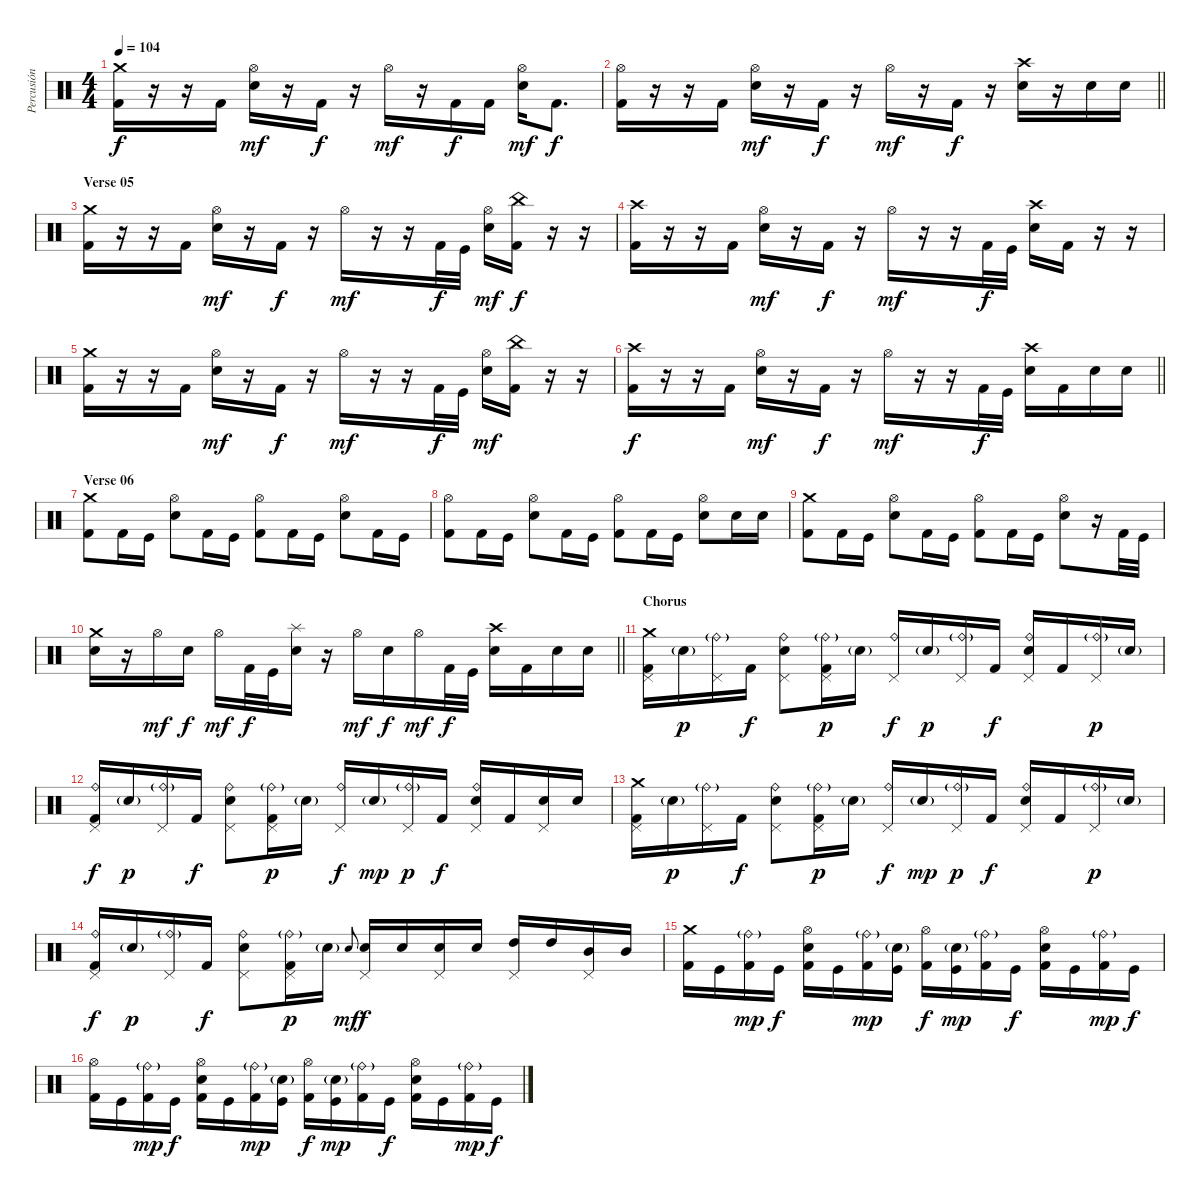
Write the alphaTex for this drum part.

\track ("Percusión" "Percusión") {instrument percussion}
\staff {score}
\articulation defaults
\ts (4 4)
\tempo 104
\clef neutral
\ks c
("Crash medium (hit)" "Kick (hit) 2").16{dy f} r.16 r.16 "Kick (hit) 2".16 ("Hi-Hat (open)" "Snare (hit) 2").16{dy mf} r.16 "Kick (hit) 2".16{dy f} r.16 "Hi-Hat (open)".16{dy mf} r.16 "Kick (hit) 2".16{dy f} "Kick (hit) 2".16 ("Hi-Hat (open)" "Snare (hit) 2").16{dy mf} "Kick (hit) 2".8{d dy f} |
\barLineRight lightlight
("Hi-Hat (open)" "Kick (hit) 2").16 r.16 r.16 "Kick (hit) 2".16 ("Hi-Hat (open)" "Snare (hit) 2").16{dy mf} r.16 "Kick (hit) 2".16{dy f} r.16 "Hi-Hat (open)".16{dy mf} r.16 "Kick (hit) 2".16{dy f} r.16 ("Crash high (hit)" "Snare (hit) 2").16 r.16 "Snare (hit) 2".16 "Snare (hit) 2".16 |
\section ("" "Verse 05")
("Crash medium (hit)" "Kick (hit) 2").16 r.16 r.16 "Kick (hit) 2".16 ("Hi-Hat (open)" "Snare (hit) 2").16{dy mf} r.16 "Kick (hit) 2".16{dy f} r.16 "Hi-Hat (open)".16{dy mf} r.16 r.16 "Kick (hit) 2".32{dy f} "Kick (hit)".32 ("Hi-Hat (open)" "Snare (hit) 2").16{dy mf} ("China (hit)" "Kick (hit) 2").16{dy f} r.16 r.16 |
("Crash high (hit)" "Kick (hit) 2").16 r.16 r.16 "Kick (hit) 2".16 ("Hi-Hat (open)" "Snare (hit) 2").16{dy mf} r.16 "Kick (hit) 2".16{dy f} r.16 "Hi-Hat (open)".16{dy mf} r.16 r.16 "Kick (hit) 2".32{dy f} "Kick (hit)".32 ("Crash high (hit)" "Snare (hit) 2").16 "Kick (hit) 2".16 r.16 r.16 |
("Crash medium (hit)" "Kick (hit) 2").16 r.16 r.16 "Kick (hit) 2".16 ("Hi-Hat (open)" "Snare (hit) 2").16{dy mf} r.16 "Kick (hit) 2".16{dy f} r.16 "Hi-Hat (open)".16{dy mf} r.16 r.16 "Kick (hit) 2".32{dy f} "Kick (hit)".32 ("Hi-Hat (open)" "Snare (hit) 2").16{dy mf} ("China (hit)" "Kick (hit) 2").16 r.16 r.16 |
\barLineRight lightlight
("Crash high (hit)" "Kick (hit) 2").16{dy f} r.16 r.16 "Kick (hit) 2".16 ("Hi-Hat (open)" "Snare (hit) 2").16{dy mf} r.16 "Kick (hit) 2".16{dy f} r.16 "Hi-Hat (open)".16{dy mf} r.16 r.16 "Kick (hit) 2".32{dy f} "Kick (hit)".32 ("Crash high (hit)" "Snare (hit) 2").16 "Kick (hit) 2".16 "Snare (hit) 2".16 "Snare (hit) 2".16 |
\section ("" "Verse 06")
("Crash medium (hit)" "Kick (hit) 2").8 "Kick (hit) 2".16 "Kick (hit)".16 ("Hi-Hat (open)" "Snare (hit) 2").8 "Kick (hit) 2".16 "Kick (hit)".16 ("Hi-Hat (open)" "Kick (hit) 2").8 "Kick (hit) 2".16 "Kick (hit)".16 ("Hi-Hat (open)" "Snare (hit) 2").8 "Kick (hit) 2".16 "Kick (hit)".16 |
("Hi-Hat (open)" "Kick (hit) 2").8 "Kick (hit) 2".16 "Kick (hit)".16 ("Hi-Hat (open)" "Snare (hit) 2").8 "Kick (hit) 2".16 "Kick (hit)".16 ("Hi-Hat (open)" "Kick (hit) 2").8 "Kick (hit) 2".16 "Kick (hit)".16 ("Hi-Hat (open)" "Snare (hit) 2").8 "Snare (hit) 2".16 "Snare (hit) 2".16 |
("Crash medium (hit)" "Kick (hit) 2").8 "Kick (hit) 2".16 "Kick (hit)".16 ("Hi-Hat (open)" "Snare (hit) 2").8 "Kick (hit) 2".16 "Kick (hit)".16 ("Hi-Hat (open)" "Kick (hit) 2").8 "Kick (hit) 2".16 "Kick (hit)".16 ("Hi-Hat (open)" "Snare (hit) 2").8 r.16 "Kick (hit) 2".32 "Kick (hit)".32 |
\barLineRight lightlight
("Crash medium (hit)" "Snare (hit) 2").16 r.16 "Hi-Hat (open)".16{dy mf} "Snare (hit) 2".16{dy f} "Hi-Hat (open)".16{dy mf} "Kick (hit) 2".32{dy f} "Kick (hit)".32 ("Splash (hit)" "Snare (hit) 2").16 r.16 "Hi-Hat (open)".16{dy mf} "Snare (hit) 2".16{dy f} "Hi-Hat (open)".16{dy mf} "Kick (hit) 2".32{dy f} "Kick (hit)".32 ("Crash high (hit)" "Snare (hit) 2").16 "Kick (hit) 2".16 "Snare (hit) 2".16 "Snare (hit) 2".16 |
\section ("" "Chorus")
("Crash medium (hit)" "Pedal Hi-Hat (hit)" "Kick (hit) 2").16 "Snare (hit) 2"{g}.16{dy p} ("Ride (bell)"{g} "Pedal Hi-Hat (hit)").16 "Kick (hit) 2".16{dy f} ("Ride (bell)" "Pedal Hi-Hat (hit)" "Snare (hit) 2").8 ("Ride (bell)"{g} "Pedal Hi-Hat (hit)" "Kick (hit) 2").16{dy p} "Snare (hit) 2"{g}.16 ("Ride (bell)" "Pedal Hi-Hat (hit)").16{dy f} "Snare (hit) 2"{g}.16{dy p} ("Ride (bell)"{g} "Pedal Hi-Hat (hit)").16 "Kick (hit) 2".16{dy f} ("Ride (bell)" "Pedal Hi-Hat (hit)" "Snare (hit) 2").16 "Kick (hit) 2".16 ("Ride (bell)"{g} "Pedal Hi-Hat (hit)").16{dy p} "Snare (hit) 2"{g}.16 |
("Ride (bell)" "Pedal Hi-Hat (hit)" "Kick (hit) 2").16{dy f} "Snare (hit) 2"{g}.16{dy p} ("Ride (bell)"{g} "Pedal Hi-Hat (hit)").16 "Kick (hit) 2".16{dy f} ("Ride (bell)" "Pedal Hi-Hat (hit)" "Snare (hit) 2").8 ("Ride (bell)"{g} "Pedal Hi-Hat (hit)" "Kick (hit) 2").16{dy p} "Snare (hit) 2"{g}.16 ("Ride (bell)" "Pedal Hi-Hat (hit)").16{dy f} "Snare (hit) 2"{g}.16{dy mp} ("Ride (bell)"{g} "Pedal Hi-Hat (hit)").16{dy p} "Kick (hit) 2".16{dy f} ("Ride (bell)" "Pedal Hi-Hat (hit)" "Snare (hit) 2").16 "Kick (hit) 2".16 ("Pedal Hi-Hat (hit)" "Snare (hit) 2").16 "Snare (hit) 2".16 |
("Crash medium (hit)" "Pedal Hi-Hat (hit)" "Kick (hit) 2").16 "Snare (hit) 2"{g}.16{dy p} ("Ride (bell)"{g} "Pedal Hi-Hat (hit)").16 "Kick (hit) 2".16{dy f} ("Ride (bell)" "Pedal Hi-Hat (hit)" "Snare (hit) 2").8 ("Ride (bell)"{g} "Pedal Hi-Hat (hit)" "Kick (hit) 2").16{dy p} "Snare (hit) 2"{g}.16 ("Ride (bell)" "Pedal Hi-Hat (hit)").16{dy f} "Snare (hit) 2"{g}.16{dy mp} ("Ride (bell)"{g} "Pedal Hi-Hat (hit)").16{dy p} "Kick (hit) 2".16{dy f} ("Ride (bell)" "Pedal Hi-Hat (hit)" "Snare (hit) 2").16 "Kick (hit) 2".16 ("Ride (bell)"{g} "Pedal Hi-Hat (hit)").16{dy p} "Snare (hit) 2"{g}.16 |
("Ride (bell)" "Pedal Hi-Hat (hit)" "Kick (hit) 2").16{dy f} "Snare (hit) 2"{g}.16{dy p} ("Ride (bell)"{g} "Pedal Hi-Hat (hit)").16 "Kick (hit) 2".16{dy f} ("Ride (bell)" "Pedal Hi-Hat (hit)" "Snare (hit) 2").8 ("Ride (bell)"{g} "Pedal Hi-Hat (hit)" "Kick (hit) 2").16{dy p} "Snare (hit) 2"{g}.16 "Snare (hit) 2".8{gr onbeat dy mf} ("Pedal Hi-Hat (hit)" "Snare (hit) 2").16{dy f} "Snare (hit) 2".16 ("Pedal Hi-Hat (hit)" "Snare (hit) 2").16 "Snare (hit) 2".16 ("Pedal Hi-Hat (hit)" "High Tom (hit)").16 "High Tom (hit)".16 ("Pedal Hi-Hat (hit)" "Mid Tom (hit)").16 "Mid Tom (hit)".16 |
("Crash medium (hit)" "Kick (hit) 2").16 "Kick (hit)".16 ("Ride (bell)"{g} "Kick (hit) 2").16{dy mp} "Kick (hit)".16{dy f} ("Hi-Hat (open)" "Snare (hit) 2" "Kick (hit) 2").16 "Kick (hit)".16 ("Ride (bell)"{g} "Kick (hit) 2").16{dy mp} ("Snare (hit) 2"{g} "Kick (hit)").16 ("Hi-Hat (open)" "Kick (hit) 2").16{dy f} ("Snare (hit) 2"{g} "Kick (hit)").16{dy mp} ("Ride (bell)"{g} "Kick (hit) 2").16 "Kick (hit)".16{dy f} ("Hi-Hat (open)" "Snare (hit) 2" "Kick (hit) 2").16 "Kick (hit)".16 ("Ride (bell)"{g} "Kick (hit) 2").16{dy mp} "Kick (hit)".16{dy f} |
("Hi-Hat (open)" "Kick (hit) 2").16 "Kick (hit)".16 ("Ride (bell)"{g} "Kick (hit) 2").16{dy mp} "Kick (hit)".16{dy f} ("Hi-Hat (open)" "Snare (hit) 2" "Kick (hit) 2").16 "Kick (hit)".16 ("Ride (bell)"{g} "Kick (hit) 2").16{dy mp} ("Snare (hit) 2"{g} "Kick (hit)").16 ("Hi-Hat (open)" "Kick (hit) 2").16{dy f} ("Snare (hit) 2"{g} "Kick (hit)").16{dy mp} ("Ride (bell)"{g} "Kick (hit) 2").16 "Kick (hit)".16{dy f} ("Hi-Hat (open)" "Snare (hit) 2" "Kick (hit) 2").16 "Kick (hit)".16 ("Ride (bell)"{g} "Kick (hit) 2").16{dy mp} "Kick (hit)".16{dy f}
